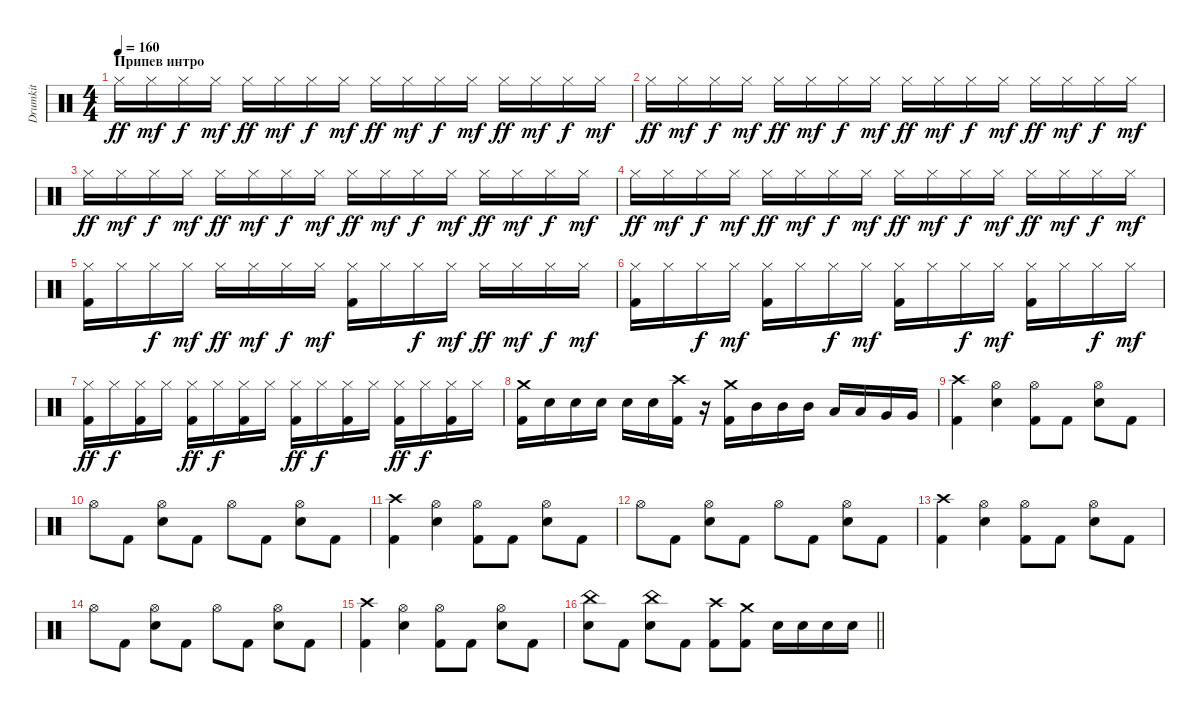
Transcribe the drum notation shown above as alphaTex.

\track ("Drumkit" "Drumkit") {instrument percussion}
\staff {score}
\articulation defaults
\ts (4 4)
\section ("" "Припев интро")
\tempo 160
\clef neutral
\ks c "Hi-Hat (closed)".16{dy ff} "Hi-Hat (closed)".16{dy mf} "Hi-Hat (closed)".16{dy f} "Hi-Hat (closed)".16{dy mf} "Hi-Hat (closed)".16{dy ff} "Hi-Hat (closed)".16{dy mf} "Hi-Hat (closed)".16{dy f} "Hi-Hat (closed)".16{dy mf} "Hi-Hat (closed)".16{dy ff} "Hi-Hat (closed)".16{dy mf} "Hi-Hat (closed)".16{dy f} "Hi-Hat (closed)".16{dy mf} "Hi-Hat (closed)".16{dy ff} "Hi-Hat (closed)".16{dy mf} "Hi-Hat (closed)".16{dy f} "Hi-Hat (closed)".16{dy mf}
|
"Hi-Hat (closed)".16{dy ff} "Hi-Hat (closed)".16{dy mf} "Hi-Hat (closed)".16{dy f} "Hi-Hat (closed)".16{dy mf} "Hi-Hat (closed)".16{dy ff} "Hi-Hat (closed)".16{dy mf} "Hi-Hat (closed)".16{dy f} "Hi-Hat (closed)".16{dy mf} "Hi-Hat (closed)".16{dy ff} "Hi-Hat (closed)".16{dy mf} "Hi-Hat (closed)".16{dy f} "Hi-Hat (closed)".16{dy mf} "Hi-Hat (closed)".16{dy ff} "Hi-Hat (closed)".16{dy mf} "Hi-Hat (closed)".16{dy f} "Hi-Hat (closed)".16{dy mf} |
"Hi-Hat (closed)".16{dy ff} "Hi-Hat (closed)".16{dy mf} "Hi-Hat (closed)".16{dy f} "Hi-Hat (closed)".16{dy mf} "Hi-Hat (closed)".16{dy ff} "Hi-Hat (closed)".16{dy mf} "Hi-Hat (closed)".16{dy f} "Hi-Hat (closed)".16{dy mf} "Hi-Hat (closed)".16{dy ff} "Hi-Hat (closed)".16{dy mf} "Hi-Hat (closed)".16{dy f} "Hi-Hat (closed)".16{dy mf} "Hi-Hat (closed)".16{dy ff} "Hi-Hat (closed)".16{dy mf} "Hi-Hat (closed)".16{dy f} "Hi-Hat (closed)".16{dy mf} |
"Hi-Hat (closed)".16{dy ff} "Hi-Hat (closed)".16{dy mf} "Hi-Hat (closed)".16{dy f} "Hi-Hat (closed)".16{dy mf} "Hi-Hat (closed)".16{dy ff} "Hi-Hat (closed)".16{dy mf} "Hi-Hat (closed)".16{dy f} "Hi-Hat (closed)".16{dy mf} "Hi-Hat (closed)".16{dy ff} "Hi-Hat (closed)".16{dy mf} "Hi-Hat (closed)".16{dy f} "Hi-Hat (closed)".16{dy mf} "Hi-Hat (closed)".16{dy ff} "Hi-Hat (closed)".16{dy mf} "Hi-Hat (closed)".16{dy f} "Hi-Hat (closed)".16{dy mf} |
("Hi-Hat (closed)" "Kick (hit) 2").16 "Hi-Hat (closed)".16 "Hi-Hat (closed)".16{dy f} "Hi-Hat (closed)".16{dy mf} "Hi-Hat (closed)".16{dy ff} "Hi-Hat (closed)".16{dy mf} "Hi-Hat (closed)".16{dy f} "Hi-Hat (closed)".16{dy mf} ("Hi-Hat (closed)" "Kick (hit) 2").16 "Hi-Hat (closed)".16 "Hi-Hat (closed)".16{dy f} "Hi-Hat (closed)".16{dy mf} "Hi-Hat (closed)".16{dy ff} "Hi-Hat (closed)".16{dy mf} "Hi-Hat (closed)".16{dy f} "Hi-Hat (closed)".16{dy mf} |
("Hi-Hat (closed)" "Kick (hit) 2").16 "Hi-Hat (closed)".16 "Hi-Hat (closed)".16{dy f} "Hi-Hat (closed)".16{dy mf} ("Hi-Hat (closed)" "Kick (hit) 2").16 "Hi-Hat (closed)".16 "Hi-Hat (closed)".16{dy f} "Hi-Hat (closed)".16{dy mf} ("Hi-Hat (closed)" "Kick (hit) 2").16 "Hi-Hat (closed)".16 "Hi-Hat (closed)".16{dy f} "Hi-Hat (closed)".16{dy mf} ("Hi-Hat (closed)" "Kick (hit) 2").16 "Hi-Hat (closed)".16 "Hi-Hat (closed)".16{dy f} "Hi-Hat (closed)".16{dy mf} |
("Hi-Hat (closed)" "Kick (hit) 2").16{dy ff} "Hi-Hat (closed)".16{dy f} ("Hi-Hat (closed)" "Kick (hit) 2").16 "Hi-Hat (closed)".16 ("Hi-Hat (closed)" "Kick (hit) 2").16{dy ff} "Hi-Hat (closed)".16{dy f} ("Hi-Hat (closed)" "Kick (hit) 2").16 "Hi-Hat (closed)".16 ("Hi-Hat (closed)" "Kick (hit) 2").16{dy ff} "Hi-Hat (closed)".16{dy f} ("Hi-Hat (closed)" "Kick (hit) 2").16 "Hi-Hat (closed)".16 ("Hi-Hat (closed)" "Kick (hit) 2").16{dy ff} "Hi-Hat (closed)".16{dy f} ("Hi-Hat (closed)" "Kick (hit) 2").16 "Hi-Hat (closed)".16 |
("Crash medium (hit)" "Kick (hit) 2").16 "Electric Snare (hit)".16 "Electric Snare (hit)".16 "Electric Snare (hit)".16 "Electric Snare (hit)".16 "Electric Snare (hit)".16 ("Crash high (hit)" "Kick (hit) 2").16 r.16 ("Crash medium (hit)" "Kick (hit) 2").16 "Mid Tom (hit)".16 "Mid Tom (hit)".16 "Mid Tom (hit)".16 "Low Tom (hit)".16 "Low Tom (hit)".16 "Very Low Tom (hit)".16 "Very Low Tom (hit)".16 |
("Crash high (hit)" "Kick (hit) 2").4 ("Hi-Hat (open)" "Electric Snare (hit)").4 ("Hi-Hat (open)" "Kick (hit) 2").8 "Kick (hit) 2".8 ("Hi-Hat (open)" "Electric Snare (hit)").8 "Kick (hit) 2".8 |
"Hi-Hat (open)".8 "Kick (hit) 2".8 ("Hi-Hat (open)" "Electric Snare (hit)").8 "Kick (hit) 2".8 "Hi-Hat (open)".8 "Kick (hit) 2".8 ("Hi-Hat (open)" "Electric Snare (hit)").8 "Kick (hit) 2".8 |
("Crash high (hit)" "Kick (hit) 2").4 ("Hi-Hat (open)" "Electric Snare (hit)").4 ("Hi-Hat (open)" "Kick (hit) 2").8 "Kick (hit) 2".8 ("Hi-Hat (open)" "Electric Snare (hit)").8 "Kick (hit) 2".8 |
"Hi-Hat (open)".8 "Kick (hit) 2".8 ("Hi-Hat (open)" "Electric Snare (hit)").8 "Kick (hit) 2".8 "Hi-Hat (open)".8 "Kick (hit) 2".8 ("Hi-Hat (open)" "Electric Snare (hit)").8 "Kick (hit) 2".8 |
("Crash high (hit)" "Kick (hit) 2").4 ("Hi-Hat (open)" "Electric Snare (hit)").4 ("Hi-Hat (open)" "Kick (hit) 2").8 "Kick (hit) 2".8 ("Hi-Hat (open)" "Electric Snare (hit)").8 "Kick (hit) 2".8 |
"Hi-Hat (open)".8 "Kick (hit) 2".8 ("Hi-Hat (open)" "Electric Snare (hit)").8 "Kick (hit) 2".8 "Hi-Hat (open)".8 "Kick (hit) 2".8 ("Hi-Hat (open)" "Electric Snare (hit)").8 "Kick (hit) 2".8 |
("Crash high (hit)" "Kick (hit) 2").4 ("Hi-Hat (open)" "Electric Snare (hit)").4 ("Hi-Hat (open)" "Kick (hit) 2").8 "Kick (hit) 2".8 ("Hi-Hat (open)" "Electric Snare (hit)").8 "Kick (hit) 2".8 |
\barLineRight lightlight
("China (hit)" "Electric Snare (hit)").8 "Kick (hit) 2".8 ("China (hit)" "Electric Snare (hit)").8 "Kick (hit) 2".8 ("Crash high (hit)" "Kick (hit) 2").8 ("Crash medium (hit)" "Kick (hit) 2").8 "Electric Snare (hit)".16 "Electric Snare (hit)".16 "Electric Snare (hit)".16 "Electric Snare (hit)".16
